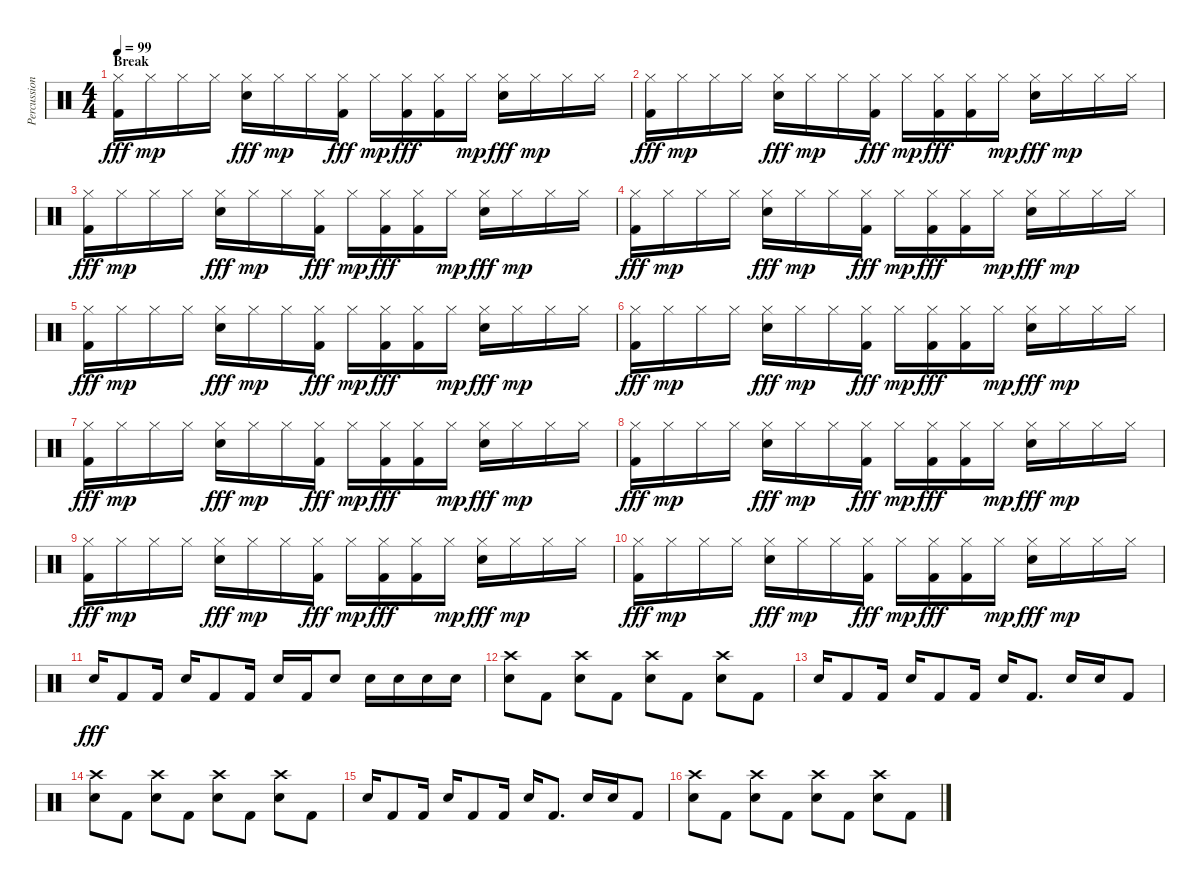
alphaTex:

\track ("Percussion" "Percussion") {instrument percussion}
\staff {score}
\articulation defaults
\ts (4 4)
\section ("" "Break")
\tempo 99
\clef neutral
\ks c
("Hi-Hat (closed)" "Kick (hit) 2").16{dy fff} "Hi-Hat (closed)".16{dy mp} "Hi-Hat (closed)".16 "Hi-Hat (closed)".16 ("Hi-Hat (closed)" "Snare (hit) 2").16{dy fff} "Hi-Hat (closed)".16{dy mp} "Hi-Hat (closed)".16 ("Hi-Hat (closed)" "Kick (hit) 2").16{dy fff} "Hi-Hat (closed)".16{dy mp} ("Hi-Hat (closed)" "Kick (hit) 2").16{dy fff} ("Hi-Hat (closed)" "Kick (hit) 2").16 "Hi-Hat (closed)".16{dy mp} ("Hi-Hat (closed)" "Snare (hit) 2").16{dy fff} "Hi-Hat (closed)".16{dy mp} "Hi-Hat (closed)".16 "Hi-Hat (closed)".16 |
("Hi-Hat (closed)" "Kick (hit) 2").16{dy fff} "Hi-Hat (closed)".16{dy mp} "Hi-Hat (closed)".16 "Hi-Hat (closed)".16 ("Hi-Hat (closed)" "Snare (hit) 2").16{dy fff} "Hi-Hat (closed)".16{dy mp} "Hi-Hat (closed)".16 ("Hi-Hat (closed)" "Kick (hit) 2").16{dy fff} "Hi-Hat (closed)".16{dy mp} ("Hi-Hat (closed)" "Kick (hit) 2").16{dy fff} ("Hi-Hat (closed)" "Kick (hit) 2").16 "Hi-Hat (closed)".16{dy mp} ("Hi-Hat (closed)" "Snare (hit) 2").16{dy fff} "Hi-Hat (closed)".16{dy mp} "Hi-Hat (closed)".16 "Hi-Hat (closed)".16 |
("Hi-Hat (closed)" "Kick (hit) 2").16{dy fff} "Hi-Hat (closed)".16{dy mp} "Hi-Hat (closed)".16 "Hi-Hat (closed)".16 ("Hi-Hat (closed)" "Snare (hit) 2").16{dy fff} "Hi-Hat (closed)".16{dy mp} "Hi-Hat (closed)".16 ("Hi-Hat (closed)" "Kick (hit) 2").16{dy fff} "Hi-Hat (closed)".16{dy mp} ("Hi-Hat (closed)" "Kick (hit) 2").16{dy fff} ("Hi-Hat (closed)" "Kick (hit) 2").16 "Hi-Hat (closed)".16{dy mp} ("Hi-Hat (closed)" "Snare (hit) 2").16{dy fff} "Hi-Hat (closed)".16{dy mp} "Hi-Hat (closed)".16 "Hi-Hat (closed)".16 |
("Hi-Hat (closed)" "Kick (hit) 2").16{dy fff} "Hi-Hat (closed)".16{dy mp} "Hi-Hat (closed)".16 "Hi-Hat (closed)".16 ("Hi-Hat (closed)" "Snare (hit) 2").16{dy fff} "Hi-Hat (closed)".16{dy mp} "Hi-Hat (closed)".16 ("Hi-Hat (closed)" "Kick (hit) 2").16{dy fff} "Hi-Hat (closed)".16{dy mp} ("Hi-Hat (closed)" "Kick (hit) 2").16{dy fff} ("Hi-Hat (closed)" "Kick (hit) 2").16 "Hi-Hat (closed)".16{dy mp} ("Hi-Hat (closed)" "Snare (hit) 2").16{dy fff} "Hi-Hat (closed)".16{dy mp} "Hi-Hat (closed)".16 "Hi-Hat (closed)".16 |
("Hi-Hat (closed)" "Kick (hit) 2").16{dy fff} "Hi-Hat (closed)".16{dy mp} "Hi-Hat (closed)".16 "Hi-Hat (closed)".16 ("Hi-Hat (closed)" "Snare (hit) 2").16{dy fff} "Hi-Hat (closed)".16{dy mp} "Hi-Hat (closed)".16 ("Hi-Hat (closed)" "Kick (hit) 2").16{dy fff} "Hi-Hat (closed)".16{dy mp} ("Hi-Hat (closed)" "Kick (hit) 2").16{dy fff} ("Hi-Hat (closed)" "Kick (hit) 2").16 "Hi-Hat (closed)".16{dy mp} ("Hi-Hat (closed)" "Snare (hit) 2").16{dy fff} "Hi-Hat (closed)".16{dy mp} "Hi-Hat (closed)".16 "Hi-Hat (closed)".16 |
("Hi-Hat (closed)" "Kick (hit) 2").16{dy fff} "Hi-Hat (closed)".16{dy mp} "Hi-Hat (closed)".16 "Hi-Hat (closed)".16 ("Hi-Hat (closed)" "Snare (hit) 2").16{dy fff} "Hi-Hat (closed)".16{dy mp} "Hi-Hat (closed)".16 ("Hi-Hat (closed)" "Kick (hit) 2").16{dy fff} "Hi-Hat (closed)".16{dy mp} ("Hi-Hat (closed)" "Kick (hit) 2").16{dy fff} ("Hi-Hat (closed)" "Kick (hit) 2").16 "Hi-Hat (closed)".16{dy mp} ("Hi-Hat (closed)" "Snare (hit) 2").16{dy fff} "Hi-Hat (closed)".16{dy mp} "Hi-Hat (closed)".16 "Hi-Hat (closed)".16 |
("Hi-Hat (closed)" "Kick (hit) 2").16{dy fff} "Hi-Hat (closed)".16{dy mp} "Hi-Hat (closed)".16 "Hi-Hat (closed)".16 ("Hi-Hat (closed)" "Snare (hit) 2").16{dy fff} "Hi-Hat (closed)".16{dy mp} "Hi-Hat (closed)".16 ("Hi-Hat (closed)" "Kick (hit) 2").16{dy fff} "Hi-Hat (closed)".16{dy mp} ("Hi-Hat (closed)" "Kick (hit) 2").16{dy fff} ("Hi-Hat (closed)" "Kick (hit) 2").16 "Hi-Hat (closed)".16{dy mp} ("Hi-Hat (closed)" "Snare (hit) 2").16{dy fff} "Hi-Hat (closed)".16{dy mp} "Hi-Hat (closed)".16 "Hi-Hat (closed)".16 |
("Hi-Hat (closed)" "Kick (hit) 2").16{dy fff} "Hi-Hat (closed)".16{dy mp} "Hi-Hat (closed)".16 "Hi-Hat (closed)".16 ("Hi-Hat (closed)" "Snare (hit) 2").16{dy fff} "Hi-Hat (closed)".16{dy mp} "Hi-Hat (closed)".16 ("Hi-Hat (closed)" "Kick (hit) 2").16{dy fff} "Hi-Hat (closed)".16{dy mp} ("Hi-Hat (closed)" "Kick (hit) 2").16{dy fff} ("Hi-Hat (closed)" "Kick (hit) 2").16 "Hi-Hat (closed)".16{dy mp} ("Hi-Hat (closed)" "Snare (hit) 2").16{dy fff} "Hi-Hat (closed)".16{dy mp} "Hi-Hat (closed)".16 "Hi-Hat (closed)".16 |
("Hi-Hat (closed)" "Kick (hit) 2").16{dy fff} "Hi-Hat (closed)".16{dy mp} "Hi-Hat (closed)".16 "Hi-Hat (closed)".16 ("Hi-Hat (closed)" "Snare (hit) 2").16{dy fff} "Hi-Hat (closed)".16{dy mp} "Hi-Hat (closed)".16 ("Hi-Hat (closed)" "Kick (hit) 2").16{dy fff} "Hi-Hat (closed)".16{dy mp} ("Hi-Hat (closed)" "Kick (hit) 2").16{dy fff} ("Hi-Hat (closed)" "Kick (hit) 2").16 "Hi-Hat (closed)".16{dy mp} ("Hi-Hat (closed)" "Snare (hit) 2").16{dy fff} "Hi-Hat (closed)".16{dy mp} "Hi-Hat (closed)".16 "Hi-Hat (closed)".16 |
("Hi-Hat (closed)" "Kick (hit) 2").16{dy fff} "Hi-Hat (closed)".16{dy mp} "Hi-Hat (closed)".16 "Hi-Hat (closed)".16 ("Hi-Hat (closed)" "Snare (hit) 2").16{dy fff} "Hi-Hat (closed)".16{dy mp} "Hi-Hat (closed)".16 ("Hi-Hat (closed)" "Kick (hit) 2").16{dy fff} "Hi-Hat (closed)".16{dy mp} ("Hi-Hat (closed)" "Kick (hit) 2").16{dy fff} ("Hi-Hat (closed)" "Kick (hit) 2").16 "Hi-Hat (closed)".16{dy mp} ("Hi-Hat (closed)" "Snare (hit) 2").16{dy fff} "Hi-Hat (closed)".16{dy mp} "Hi-Hat (closed)".16 "Hi-Hat (closed)".16 |
"Snare (hit) 2".16{dy fff} "Kick (hit) 2".8 "Kick (hit) 2".16 "Snare (hit) 2".16 "Kick (hit) 2".8 "Kick (hit) 2".16 "Snare (hit) 2".16 "Kick (hit) 2".16 "Snare (hit) 2".8 "Snare (hit) 2".16 "Snare (hit) 2".16 "Snare (hit) 2".16 "Snare (hit) 2".16 |
("Crash high (hit)" "Snare (hit) 2").8 "Kick (hit) 2".8 ("Crash high (hit)" "Snare (hit) 2").8 "Kick (hit) 2".8 ("Crash high (hit)" "Snare (hit) 2").8 "Kick (hit) 2".8 ("Crash high (hit)" "Snare (hit) 2").8 "Kick (hit) 2".8 |
"Snare (hit) 2".16 "Kick (hit) 2".8 "Kick (hit) 2".16 "Snare (hit) 2".16 "Kick (hit) 2".8 "Kick (hit) 2".16 "Snare (hit) 2".16 "Kick (hit) 2".8{d} "Snare (hit) 2".16 "Snare (hit) 2".16 "Kick (hit) 2".8 |
("Crash high (hit)" "Snare (hit) 2").8 "Kick (hit) 2".8 ("Crash high (hit)" "Snare (hit) 2").8 "Kick (hit) 2".8 ("Crash high (hit)" "Snare (hit) 2").8 "Kick (hit) 2".8 ("Crash high (hit)" "Snare (hit) 2").8 "Kick (hit) 2".8 |
"Snare (hit) 2".16 "Kick (hit) 2".8 "Kick (hit) 2".16 "Snare (hit) 2".16 "Kick (hit) 2".8 "Kick (hit) 2".16 "Snare (hit) 2".16 "Kick (hit) 2".8{d} "Snare (hit) 2".16 "Snare (hit) 2".16 "Kick (hit) 2".8 |
("Crash high (hit)" "Snare (hit) 2").8 "Kick (hit) 2".8 ("Crash high (hit)" "Snare (hit) 2").8 "Kick (hit) 2".8 ("Crash high (hit)" "Snare (hit) 2").8 "Kick (hit) 2".8 ("Crash high (hit)" "Snare (hit) 2").8 "Kick (hit) 2".8
